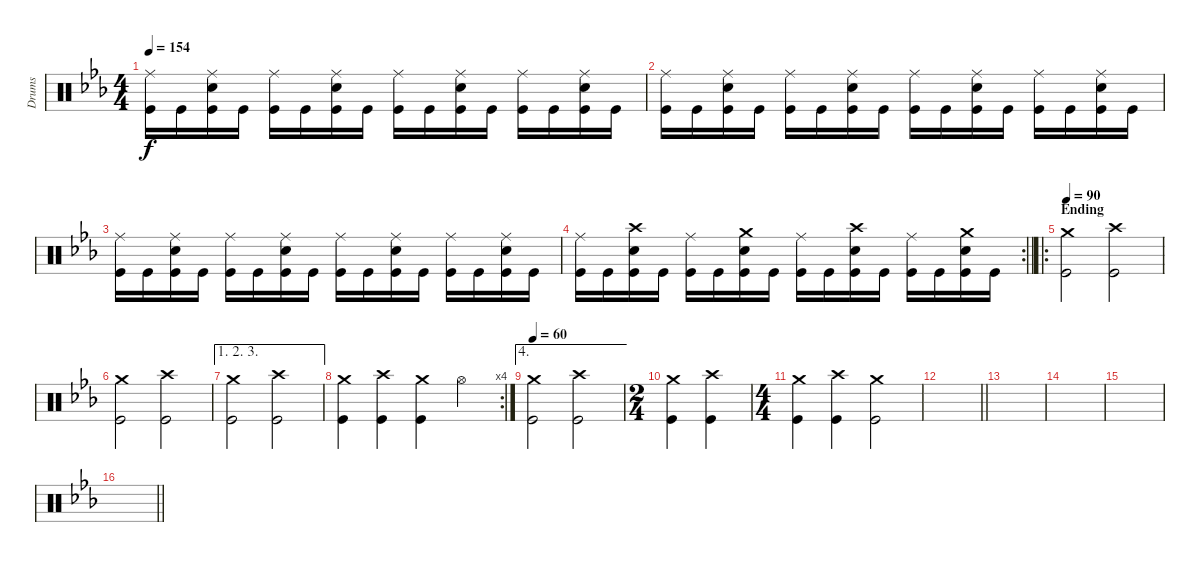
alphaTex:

\track ("Drums" "Drums") {instrument percussion}
\staff {score}
\articulation defaults
\ts (4 4)
\tempo 154
\clef neutral
\ks cminor
("Ride (middle)" "Kick (hit)").16{dy f} "Kick (hit)".16 ("Ride (middle)" "Snare (hit) 2" "Kick (hit)").16 "Kick (hit)".16 ("Ride (middle)" "Kick (hit)").16 "Kick (hit)".16 ("Ride (middle)" "Snare (hit) 2" "Kick (hit)").16 "Kick (hit)".16 ("Ride (middle)" "Kick (hit)").16 "Kick (hit)".16 ("Ride (middle)" "Snare (hit) 2" "Kick (hit)").16 "Kick (hit)".16 ("Ride (middle)" "Kick (hit)").16 "Kick (hit)".16 ("Ride (middle)" "Snare (hit) 2" "Kick (hit)").16 "Kick (hit)".16 |
("Ride (middle)" "Kick (hit)").16 "Kick (hit)".16 ("Ride (middle)" "Snare (hit) 2" "Kick (hit)").16 "Kick (hit)".16 ("Ride (middle)" "Kick (hit)").16 "Kick (hit)".16 ("Ride (middle)" "Snare (hit) 2" "Kick (hit)").16 "Kick (hit)".16 ("Ride (middle)" "Kick (hit)").16 "Kick (hit)".16 ("Ride (middle)" "Snare (hit) 2" "Kick (hit)").16 "Kick (hit)".16 ("Ride (middle)" "Kick (hit)").16 "Kick (hit)".16 ("Ride (middle)" "Snare (hit) 2" "Kick (hit)").16 "Kick (hit)".16 |
("Ride (middle)" "Kick (hit)").16 "Kick (hit)".16 ("Ride (middle)" "Snare (hit) 2" "Kick (hit)").16 "Kick (hit)".16 ("Ride (middle)" "Kick (hit)").16 "Kick (hit)".16 ("Ride (middle)" "Snare (hit) 2" "Kick (hit)").16 "Kick (hit)".16 ("Ride (middle)" "Kick (hit)").16 "Kick (hit)".16 ("Ride (middle)" "Snare (hit) 2" "Kick (hit)").16 "Kick (hit)".16 ("Ride (middle)" "Kick (hit)").16 "Kick (hit)".16 ("Ride (middle)" "Snare (hit) 2" "Kick (hit)").16 "Kick (hit)".16 |
\rc 2
\barLineRight lightlight
("Ride (middle)" "Kick (hit)").16 "Kick (hit)".16 ("Crash high (hit)" "Snare (hit) 2" "Kick (hit)").16 "Kick (hit)".16 ("Ride (middle)" "Kick (hit)").16 "Kick (hit)".16 ("Crash medium (hit)" "Snare (hit) 2" "Kick (hit)").16 "Kick (hit)".16 ("Ride (middle)" "Kick (hit)").16 "Kick (hit)".16 ("Crash high (hit)" "Snare (hit) 2" "Kick (hit)").16 "Kick (hit)".16 ("Ride (middle)" "Kick (hit)").16 "Kick (hit)".16 ("Crash medium (hit)" "Snare (hit) 2" "Kick (hit)").16 "Kick (hit)".16 |
\ro
\section ("" "Ending")
\tempo 90
("Crash medium (hit)" "Kick (hit)").2 ("Crash high (hit)" "Kick (hit)").2 |
("Crash medium (hit)" "Kick (hit)").2 ("Crash high (hit)" "Kick (hit)").2 |
\ae (1 2 3)
("Crash medium (hit)" "Kick (hit)").2 ("Crash high (hit)" "Kick (hit)").2 |
\rc 4
("Crash medium (hit)" "Kick (hit)").4 ("Crash high (hit)" "Kick (hit)").4 ("Crash medium (hit)" "Kick (hit)").4 "Hi-Hat (open)".4 |
\ae 4
\tempo 60
("Crash medium (hit)" "Kick (hit)").2 ("Crash high (hit)" "Kick (hit)").2 |
\ts (2 4)
("Crash medium (hit)" "Kick (hit)").4 ("Crash high (hit)" "Kick (hit)").4 |
\ts (4 4)
("Crash medium (hit)" "Kick (hit)").4 ("Crash high (hit)" "Kick (hit)").4 ("Crash medium (hit)" "Kick (hit)").2{volume 0} |
\barLineRight lightlight
|
|
|
|
\barLineRight lightlight
